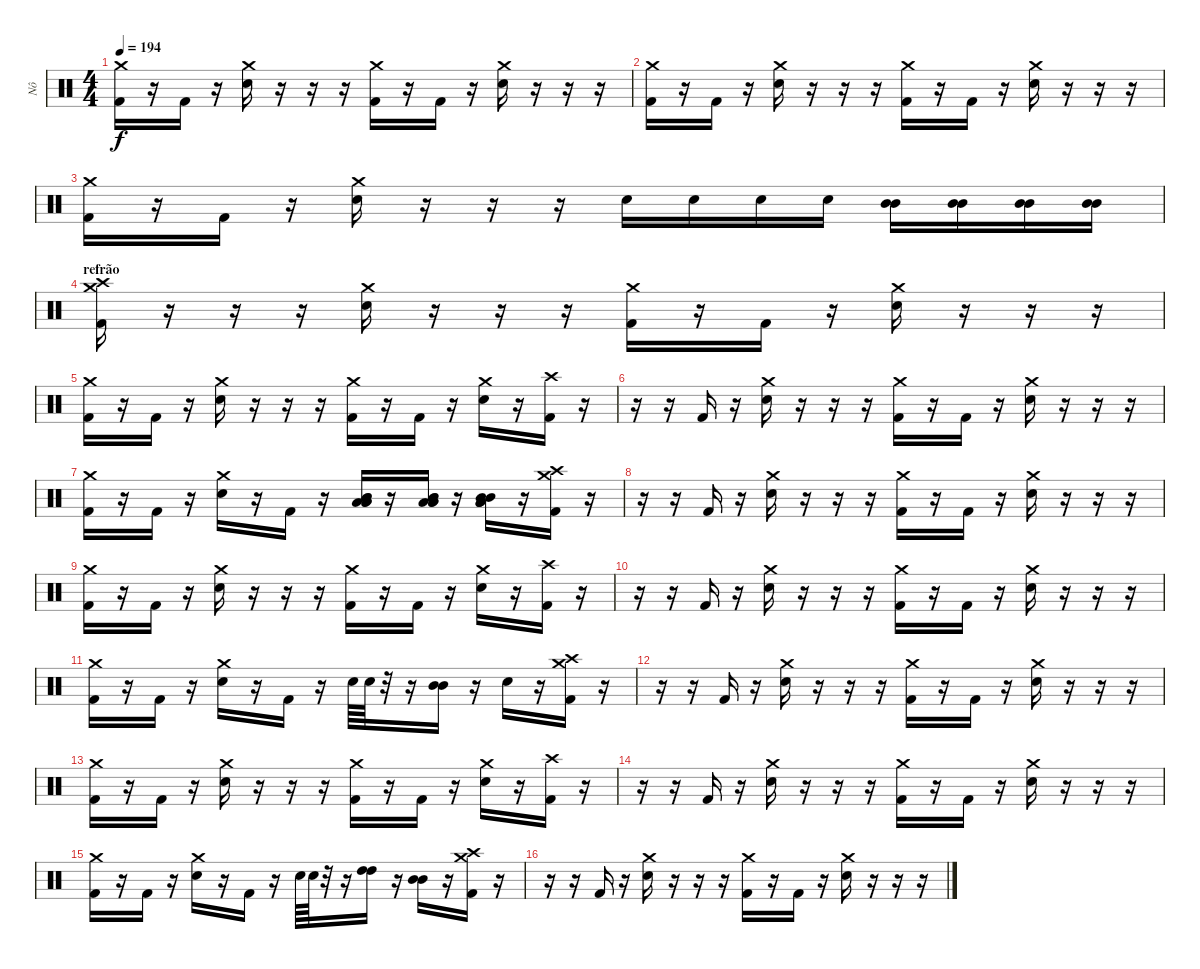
\track ("Nô" "Nô") {instrument percussion}
\staff {score}
\articulation defaults
\ts (4 4)
\tempo 194
\clef neutral
\ks c
("Crash medium (hit)" "Kick (hit) 2").16{dy f} r.16 "Kick (hit) 2".16 r.16 ("Crash medium (hit)" "Electric Snare (hit)").16 r.16 r.16 r.16 ("Crash medium (hit)" "Kick (hit) 2").16 r.16 "Kick (hit) 2".16 r.16 ("Crash medium (hit)" "Electric Snare (hit)").16 r.16 r.16 r.16 |
("Crash medium (hit)" "Kick (hit) 2").16 r.16 "Kick (hit) 2".16 r.16 ("Crash medium (hit)" "Electric Snare (hit)").16 r.16 r.16 r.16 ("Crash medium (hit)" "Kick (hit) 2").16 r.16 "Kick (hit) 2".16 r.16 ("Crash medium (hit)" "Electric Snare (hit)").16 r.16 r.16 r.16 |
("Crash medium (hit)" "Kick (hit) 2").16 r.16 "Kick (hit) 2".16 r.16 ("Crash medium (hit)" "Electric Snare (hit)").16 r.16 r.16 r.16 "Electric Snare (hit)".16 "Electric Snare (hit)".16 "Electric Snare (hit)".16 "Electric Snare (hit)".16 ("Mid Tom (hit)" "Mid Tom (hit)").16 ("Mid Tom (hit)" "Mid Tom (hit)").16 ("Mid Tom (hit)" "Mid Tom (hit)").16 ("Mid Tom (hit)" "Mid Tom (hit)").16 |
\section ("" "refrão")
("Crash medium (hit)" "Crash high (hit)" "Kick (hit) 2").16 r.16 r.16 r.16 ("Crash medium (hit)" "Electric Snare (hit)").16 r.16 r.16 r.16 ("Crash medium (hit)" "Kick (hit) 2").16 r.16 "Kick (hit) 2".16 r.16 ("Crash medium (hit)" "Electric Snare (hit)").16 r.16 r.16 r.16 |
("Crash medium (hit)" "Kick (hit) 2").16 r.16 "Kick (hit) 2".16 r.16 ("Crash medium (hit)" "Electric Snare (hit)").16 r.16 r.16 r.16 ("Crash medium (hit)" "Kick (hit) 2").16 r.16 "Kick (hit) 2".16 r.16 ("Crash medium (hit)" "Electric Snare (hit)").16 r.16 ("Crash high (hit)" "Kick (hit) 2").16 r.16 |
r.16 r.16 "Kick (hit) 2".16 r.16 ("Crash medium (hit)" "Electric Snare (hit)").16 r.16 r.16 r.16 ("Crash medium (hit)" "Kick (hit) 2").16 r.16 "Kick (hit) 2".16 r.16 ("Crash medium (hit)" "Electric Snare (hit)").16 r.16 r.16 r.16 |
("Crash medium (hit)" "Kick (hit) 2").16 r.16 "Kick (hit) 2".16 r.16 ("Crash medium (hit)" "Electric Snare (hit)").16 r.16 "Kick (hit) 2".16 r.16 ("Mid Tom (hit)" "Mid Tom (hit)" "Low Tom (hit)" "Low Tom (hit)" "Low Tom (hit)").16 r.16 ("Mid Tom (hit)" "Mid Tom (hit)" "Low Tom (hit)" "Low Tom (hit)" "Low Tom (hit)").16 r.16 ("Mid Tom (hit)" "Mid Tom (hit)" "Low Tom (hit)" "Low Tom (hit)" "Low Tom (hit)").16 r.16 ("Crash high (hit)" "Crash medium (hit)" "Kick (hit) 2").16 r.16 |
r.16 r.16 "Kick (hit) 2".16 r.16 ("Crash medium (hit)" "Electric Snare (hit)").16 r.16 r.16 r.16 ("Crash medium (hit)" "Kick (hit) 2").16 r.16 "Kick (hit) 2".16 r.16 ("Crash medium (hit)" "Electric Snare (hit)").16 r.16 r.16 r.16 |
("Crash medium (hit)" "Kick (hit) 2").16 r.16 "Kick (hit) 2".16 r.16 ("Crash medium (hit)" "Electric Snare (hit)").16 r.16 r.16 r.16 ("Crash medium (hit)" "Kick (hit) 2").16 r.16 "Kick (hit) 2".16 r.16 ("Crash medium (hit)" "Electric Snare (hit)").16 r.16 ("Crash high (hit)" "Kick (hit) 2").16 r.16 |
r.16 r.16 "Kick (hit) 2".16 r.16 ("Crash medium (hit)" "Electric Snare (hit)").16 r.16 r.16 r.16 ("Crash medium (hit)" "Kick (hit) 2").16 r.16 "Kick (hit) 2".16 r.16 ("Crash medium (hit)" "Electric Snare (hit)").16 r.16 r.16 r.16 |
("Crash medium (hit)" "Kick (hit) 2").16 r.16 "Kick (hit) 2".16 r.16 ("Crash medium (hit)" "Electric Snare (hit)").16 r.16 "Kick (hit) 2".16 r.16 "Electric Snare (hit)".64 "Electric Snare (hit)".64 r.32 r.16 ("Mid Tom (hit)" "Mid Tom (hit)").16 r.16 "Electric Snare (hit)".16 r.16 ("Crash high (hit)" "Crash medium (hit)" "Kick (hit) 2").16 r.16 |
r.16 r.16 "Kick (hit) 2".16 r.16 ("Crash medium (hit)" "Electric Snare (hit)").16 r.16 r.16 r.16 ("Crash medium (hit)" "Kick (hit) 2").16 r.16 "Kick (hit) 2".16 r.16 ("Crash medium (hit)" "Electric Snare (hit)").16 r.16 r.16 r.16 |
("Crash medium (hit)" "Kick (hit) 2").16 r.16 "Kick (hit) 2".16 r.16 ("Crash medium (hit)" "Electric Snare (hit)").16 r.16 r.16 r.16 ("Crash medium (hit)" "Kick (hit) 2").16 r.16 "Kick (hit) 2".16 r.16 ("Crash medium (hit)" "Electric Snare (hit)").16 r.16 ("Crash high (hit)" "Kick (hit) 2").16 r.16 |
r.16 r.16 "Kick (hit) 2".16 r.16 ("Crash medium (hit)" "Electric Snare (hit)").16 r.16 r.16 r.16 ("Crash medium (hit)" "Kick (hit) 2").16 r.16 "Kick (hit) 2".16 r.16 ("Crash medium (hit)" "Electric Snare (hit)").16 r.16 r.16 r.16 |
("Crash medium (hit)" "Kick (hit) 2").16 r.16 "Kick (hit) 2".16 r.16 ("Crash medium (hit)" "Electric Snare (hit)").16 r.16 "Kick (hit) 2".16 r.16 "Electric Snare (hit)".64 "Electric Snare (hit)".64 r.32 r.16 ("High Tom (hit)" "High Tom (hit)").16 r.16 ("Mid Tom (hit)" "Mid Tom (hit)").16 r.16 ("Crash high (hit)" "Crash medium (hit)" "Kick (hit) 2").16 r.16 |
r.16 r.16 "Kick (hit) 2".16 r.16 ("Crash medium (hit)" "Electric Snare (hit)").16 r.16 r.16 r.16 ("Crash medium (hit)" "Kick (hit) 2").16 r.16 "Kick (hit) 2".16 r.16 ("Crash medium (hit)" "Electric Snare (hit)").16 r.16 r.16 r.16
